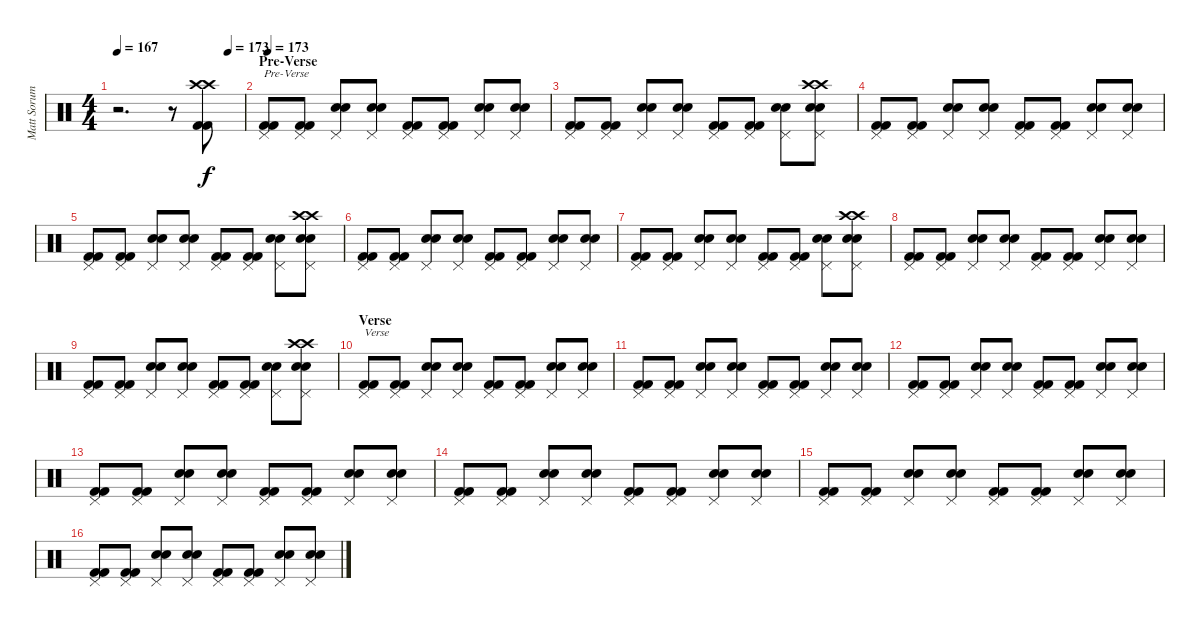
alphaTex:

\track ("Matt Sorum" "Matt Sorum") {instrument percussion}
\staff {score}
\articulation defaults
\ts (4 4)
\tempo 167
\tempo (173 0.875)
\clef neutral
\ks c
r.2{d dy f} r.8 ("Crash high (hit)" "Crash high (hit)" "Kick (hit) 2" "Kick (hit) 2").8 |
\section ("" "Pre-Verse")
\tempo 173
("Pedal Hi-Hat (hit)" "Kick (hit) 2" "Kick (hit) 2").8{txt "Pre-Verse"} ("Pedal Hi-Hat (hit)" "Kick (hit) 2" "Kick (hit) 2").8 ("Pedal Hi-Hat (hit)" "Snare (hit) 2" "Snare (hit) 2").8 ("Pedal Hi-Hat (hit)" "Snare (hit) 2" "Snare (hit) 2").8 ("Pedal Hi-Hat (hit)" "Kick (hit) 2" "Kick (hit) 2").8 ("Pedal Hi-Hat (hit)" "Kick (hit) 2" "Kick (hit) 2").8 ("Pedal Hi-Hat (hit)" "Snare (hit) 2" "Snare (hit) 2").8 ("Pedal Hi-Hat (hit)" "Snare (hit) 2" "Snare (hit) 2").8 |
("Pedal Hi-Hat (hit)" "Kick (hit) 2" "Kick (hit) 2").8 ("Pedal Hi-Hat (hit)" "Kick (hit) 2" "Kick (hit) 2").8 ("Pedal Hi-Hat (hit)" "Snare (hit) 2" "Snare (hit) 2").8 ("Pedal Hi-Hat (hit)" "Snare (hit) 2" "Snare (hit) 2").8 ("Pedal Hi-Hat (hit)" "Kick (hit) 2" "Kick (hit) 2").8 ("Pedal Hi-Hat (hit)" "Kick (hit) 2" "Kick (hit) 2").8 ("Pedal Hi-Hat (hit)" "Snare (hit) 2" "Snare (hit) 2").8 ("Crash high (hit)" "Crash high (hit)" "Pedal Hi-Hat (hit)" "Snare (hit) 2" "Snare (hit) 2").8 |
("Pedal Hi-Hat (hit)" "Kick (hit) 2" "Kick (hit) 2").8 ("Pedal Hi-Hat (hit)" "Kick (hit) 2" "Kick (hit) 2").8 ("Pedal Hi-Hat (hit)" "Snare (hit) 2" "Snare (hit) 2").8 ("Pedal Hi-Hat (hit)" "Snare (hit) 2" "Snare (hit) 2").8 ("Pedal Hi-Hat (hit)" "Kick (hit) 2" "Kick (hit) 2").8 ("Pedal Hi-Hat (hit)" "Kick (hit) 2" "Kick (hit) 2").8 ("Pedal Hi-Hat (hit)" "Snare (hit) 2" "Snare (hit) 2").8 ("Pedal Hi-Hat (hit)" "Snare (hit) 2" "Snare (hit) 2").8 |
("Pedal Hi-Hat (hit)" "Kick (hit) 2" "Kick (hit) 2").8 ("Pedal Hi-Hat (hit)" "Kick (hit) 2" "Kick (hit) 2").8 ("Pedal Hi-Hat (hit)" "Snare (hit) 2" "Snare (hit) 2").8 ("Pedal Hi-Hat (hit)" "Snare (hit) 2" "Snare (hit) 2").8 ("Pedal Hi-Hat (hit)" "Kick (hit) 2" "Kick (hit) 2").8 ("Pedal Hi-Hat (hit)" "Kick (hit) 2" "Kick (hit) 2").8 ("Pedal Hi-Hat (hit)" "Snare (hit) 2" "Snare (hit) 2").8 ("Crash high (hit)" "Crash high (hit)" "Pedal Hi-Hat (hit)" "Snare (hit) 2" "Snare (hit) 2").8 |
("Pedal Hi-Hat (hit)" "Kick (hit) 2" "Kick (hit) 2").8 ("Pedal Hi-Hat (hit)" "Kick (hit) 2" "Kick (hit) 2").8 ("Pedal Hi-Hat (hit)" "Snare (hit) 2" "Snare (hit) 2").8 ("Pedal Hi-Hat (hit)" "Snare (hit) 2" "Snare (hit) 2").8 ("Pedal Hi-Hat (hit)" "Kick (hit) 2" "Kick (hit) 2").8 ("Pedal Hi-Hat (hit)" "Kick (hit) 2" "Kick (hit) 2").8 ("Pedal Hi-Hat (hit)" "Snare (hit) 2" "Snare (hit) 2").8 ("Pedal Hi-Hat (hit)" "Snare (hit) 2" "Snare (hit) 2").8 |
("Pedal Hi-Hat (hit)" "Kick (hit) 2" "Kick (hit) 2").8 ("Pedal Hi-Hat (hit)" "Kick (hit) 2" "Kick (hit) 2").8 ("Pedal Hi-Hat (hit)" "Snare (hit) 2" "Snare (hit) 2").8 ("Pedal Hi-Hat (hit)" "Snare (hit) 2" "Snare (hit) 2").8 ("Pedal Hi-Hat (hit)" "Kick (hit) 2" "Kick (hit) 2").8 ("Pedal Hi-Hat (hit)" "Kick (hit) 2" "Kick (hit) 2").8 ("Pedal Hi-Hat (hit)" "Snare (hit) 2" "Snare (hit) 2").8 ("Crash high (hit)" "Crash high (hit)" "Pedal Hi-Hat (hit)" "Snare (hit) 2" "Snare (hit) 2").8 |
("Pedal Hi-Hat (hit)" "Kick (hit) 2" "Kick (hit) 2").8 ("Pedal Hi-Hat (hit)" "Kick (hit) 2" "Kick (hit) 2").8 ("Pedal Hi-Hat (hit)" "Snare (hit) 2" "Snare (hit) 2").8 ("Pedal Hi-Hat (hit)" "Snare (hit) 2" "Snare (hit) 2").8 ("Pedal Hi-Hat (hit)" "Kick (hit) 2" "Kick (hit) 2").8 ("Pedal Hi-Hat (hit)" "Kick (hit) 2" "Kick (hit) 2").8 ("Pedal Hi-Hat (hit)" "Snare (hit) 2" "Snare (hit) 2").8 ("Pedal Hi-Hat (hit)" "Snare (hit) 2" "Snare (hit) 2").8 |
("Pedal Hi-Hat (hit)" "Kick (hit) 2" "Kick (hit) 2").8 ("Pedal Hi-Hat (hit)" "Kick (hit) 2" "Kick (hit) 2").8 ("Pedal Hi-Hat (hit)" "Snare (hit) 2" "Snare (hit) 2").8 ("Pedal Hi-Hat (hit)" "Snare (hit) 2" "Snare (hit) 2").8 ("Pedal Hi-Hat (hit)" "Kick (hit) 2" "Kick (hit) 2").8 ("Pedal Hi-Hat (hit)" "Kick (hit) 2" "Kick (hit) 2").8 ("Pedal Hi-Hat (hit)" "Snare (hit) 2" "Snare (hit) 2").8 ("Crash high (hit)" "Crash high (hit)" "Pedal Hi-Hat (hit)" "Snare (hit) 2" "Snare (hit) 2").8 |
\section ("" "Verse")
("Pedal Hi-Hat (hit)" "Kick (hit) 2" "Kick (hit) 2").8{txt "Verse"} ("Pedal Hi-Hat (hit)" "Kick (hit) 2" "Kick (hit) 2").8 ("Pedal Hi-Hat (hit)" "Snare (hit) 2" "Snare (hit) 2").8 ("Pedal Hi-Hat (hit)" "Snare (hit) 2" "Snare (hit) 2").8 ("Pedal Hi-Hat (hit)" "Kick (hit) 2" "Kick (hit) 2").8 ("Pedal Hi-Hat (hit)" "Kick (hit) 2" "Kick (hit) 2").8 ("Pedal Hi-Hat (hit)" "Snare (hit) 2" "Snare (hit) 2").8 ("Pedal Hi-Hat (hit)" "Snare (hit) 2" "Snare (hit) 2").8 |
("Pedal Hi-Hat (hit)" "Kick (hit) 2" "Kick (hit) 2").8 ("Pedal Hi-Hat (hit)" "Kick (hit) 2" "Kick (hit) 2").8 ("Pedal Hi-Hat (hit)" "Snare (hit) 2" "Snare (hit) 2").8 ("Pedal Hi-Hat (hit)" "Snare (hit) 2" "Snare (hit) 2").8 ("Pedal Hi-Hat (hit)" "Kick (hit) 2" "Kick (hit) 2").8 ("Pedal Hi-Hat (hit)" "Kick (hit) 2" "Kick (hit) 2").8 ("Pedal Hi-Hat (hit)" "Snare (hit) 2" "Snare (hit) 2").8 ("Pedal Hi-Hat (hit)" "Snare (hit) 2" "Snare (hit) 2").8 |
("Pedal Hi-Hat (hit)" "Kick (hit) 2" "Kick (hit) 2").8 ("Pedal Hi-Hat (hit)" "Kick (hit) 2" "Kick (hit) 2").8 ("Pedal Hi-Hat (hit)" "Snare (hit) 2" "Snare (hit) 2").8 ("Pedal Hi-Hat (hit)" "Snare (hit) 2" "Snare (hit) 2").8 ("Pedal Hi-Hat (hit)" "Kick (hit) 2" "Kick (hit) 2").8 ("Pedal Hi-Hat (hit)" "Kick (hit) 2" "Kick (hit) 2").8 ("Pedal Hi-Hat (hit)" "Snare (hit) 2" "Snare (hit) 2").8 ("Pedal Hi-Hat (hit)" "Snare (hit) 2" "Snare (hit) 2").8 |
("Pedal Hi-Hat (hit)" "Kick (hit) 2" "Kick (hit) 2").8 ("Pedal Hi-Hat (hit)" "Kick (hit) 2" "Kick (hit) 2").8 ("Pedal Hi-Hat (hit)" "Snare (hit) 2" "Snare (hit) 2").8 ("Pedal Hi-Hat (hit)" "Snare (hit) 2" "Snare (hit) 2").8 ("Pedal Hi-Hat (hit)" "Kick (hit) 2" "Kick (hit) 2").8 ("Pedal Hi-Hat (hit)" "Kick (hit) 2" "Kick (hit) 2").8 ("Pedal Hi-Hat (hit)" "Snare (hit) 2" "Snare (hit) 2").8 ("Pedal Hi-Hat (hit)" "Snare (hit) 2" "Snare (hit) 2").8 |
("Pedal Hi-Hat (hit)" "Kick (hit) 2" "Kick (hit) 2").8 ("Pedal Hi-Hat (hit)" "Kick (hit) 2" "Kick (hit) 2").8 ("Pedal Hi-Hat (hit)" "Snare (hit) 2" "Snare (hit) 2").8 ("Pedal Hi-Hat (hit)" "Snare (hit) 2" "Snare (hit) 2").8 ("Pedal Hi-Hat (hit)" "Kick (hit) 2" "Kick (hit) 2").8 ("Pedal Hi-Hat (hit)" "Kick (hit) 2" "Kick (hit) 2").8 ("Pedal Hi-Hat (hit)" "Snare (hit) 2" "Snare (hit) 2").8 ("Pedal Hi-Hat (hit)" "Snare (hit) 2" "Snare (hit) 2").8 |
("Pedal Hi-Hat (hit)" "Kick (hit) 2" "Kick (hit) 2").8 ("Pedal Hi-Hat (hit)" "Kick (hit) 2" "Kick (hit) 2").8 ("Pedal Hi-Hat (hit)" "Snare (hit) 2" "Snare (hit) 2").8 ("Pedal Hi-Hat (hit)" "Snare (hit) 2" "Snare (hit) 2").8 ("Pedal Hi-Hat (hit)" "Kick (hit) 2" "Kick (hit) 2").8 ("Pedal Hi-Hat (hit)" "Kick (hit) 2" "Kick (hit) 2").8 ("Pedal Hi-Hat (hit)" "Snare (hit) 2" "Snare (hit) 2").8 ("Pedal Hi-Hat (hit)" "Snare (hit) 2" "Snare (hit) 2").8 |
("Pedal Hi-Hat (hit)" "Kick (hit) 2" "Kick (hit) 2").8 ("Pedal Hi-Hat (hit)" "Kick (hit) 2" "Kick (hit) 2").8 ("Pedal Hi-Hat (hit)" "Snare (hit) 2" "Snare (hit) 2").8 ("Pedal Hi-Hat (hit)" "Snare (hit) 2" "Snare (hit) 2").8 ("Pedal Hi-Hat (hit)" "Kick (hit) 2" "Kick (hit) 2").8 ("Pedal Hi-Hat (hit)" "Kick (hit) 2" "Kick (hit) 2").8 ("Pedal Hi-Hat (hit)" "Snare (hit) 2" "Snare (hit) 2").8 ("Pedal Hi-Hat (hit)" "Snare (hit) 2" "Snare (hit) 2").8
